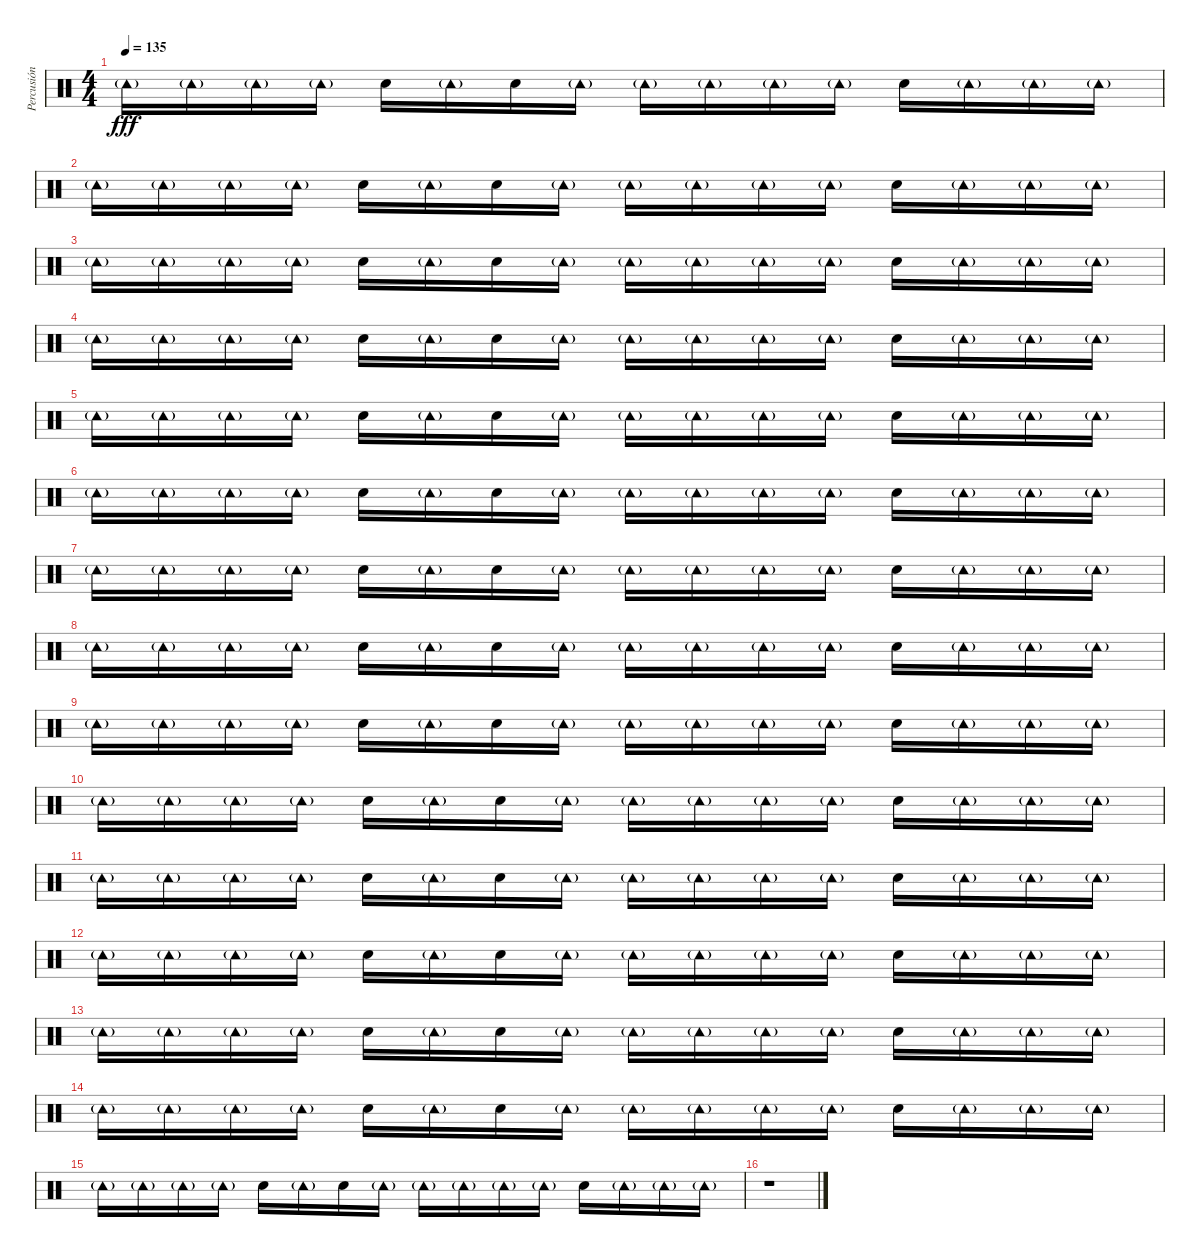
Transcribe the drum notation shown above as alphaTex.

\track ("Percusión" "Percusión") {instrument percussion}
\staff {score}
\articulation defaults
\ts (4 4)
\tempo 135
\clef neutral
\ks c "Tambourine (hit)"{g}.16{dy fff} "Tambourine (hit)"{g}.16 "Tambourine (hit)"{g}.16 "Tambourine (hit)"{g}.16 "Hand Clap (hit)".16 "Tambourine (hit)"{g}.16 "Hand Clap (hit)".16 "Tambourine (hit)"{g}.16 "Tambourine (hit)"{g}.16 "Tambourine (hit)"{g}.16 "Tambourine (hit)"{g}.16 "Tambourine (hit)"{g}.16 "Hand Clap (hit)".16 "Tambourine (hit)"{g}.16 "Tambourine (hit)"{g}.16 "Tambourine (hit)"{g}.16
|
"Tambourine (hit)"{g}.16 "Tambourine (hit)"{g}.16 "Tambourine (hit)"{g}.16 "Tambourine (hit)"{g}.16 "Hand Clap (hit)".16 "Tambourine (hit)"{g}.16 "Hand Clap (hit)".16 "Tambourine (hit)"{g}.16 "Tambourine (hit)"{g}.16 "Tambourine (hit)"{g}.16 "Tambourine (hit)"{g}.16 "Tambourine (hit)"{g}.16 "Hand Clap (hit)".16 "Tambourine (hit)"{g}.16 "Tambourine (hit)"{g}.16 "Tambourine (hit)"{g}.16 |
"Tambourine (hit)"{g}.16 "Tambourine (hit)"{g}.16 "Tambourine (hit)"{g}.16 "Tambourine (hit)"{g}.16 "Hand Clap (hit)".16 "Tambourine (hit)"{g}.16 "Hand Clap (hit)".16 "Tambourine (hit)"{g}.16 "Tambourine (hit)"{g}.16 "Tambourine (hit)"{g}.16 "Tambourine (hit)"{g}.16 "Tambourine (hit)"{g}.16 "Hand Clap (hit)".16 "Tambourine (hit)"{g}.16 "Tambourine (hit)"{g}.16 "Tambourine (hit)"{g}.16 |
"Tambourine (hit)"{g}.16 "Tambourine (hit)"{g}.16 "Tambourine (hit)"{g}.16 "Tambourine (hit)"{g}.16 "Hand Clap (hit)".16 "Tambourine (hit)"{g}.16 "Hand Clap (hit)".16 "Tambourine (hit)"{g}.16 "Tambourine (hit)"{g}.16 "Tambourine (hit)"{g}.16 "Tambourine (hit)"{g}.16 "Tambourine (hit)"{g}.16 "Hand Clap (hit)".16 "Tambourine (hit)"{g}.16 "Tambourine (hit)"{g}.16 "Tambourine (hit)"{g}.16 |
"Tambourine (hit)"{g}.16 "Tambourine (hit)"{g}.16 "Tambourine (hit)"{g}.16 "Tambourine (hit)"{g}.16 "Hand Clap (hit)".16 "Tambourine (hit)"{g}.16 "Hand Clap (hit)".16 "Tambourine (hit)"{g}.16 "Tambourine (hit)"{g}.16 "Tambourine (hit)"{g}.16 "Tambourine (hit)"{g}.16 "Tambourine (hit)"{g}.16 "Hand Clap (hit)".16 "Tambourine (hit)"{g}.16 "Tambourine (hit)"{g}.16 "Tambourine (hit)"{g}.16 |
"Tambourine (hit)"{g}.16 "Tambourine (hit)"{g}.16 "Tambourine (hit)"{g}.16 "Tambourine (hit)"{g}.16 "Hand Clap (hit)".16 "Tambourine (hit)"{g}.16 "Hand Clap (hit)".16 "Tambourine (hit)"{g}.16 "Tambourine (hit)"{g}.16 "Tambourine (hit)"{g}.16 "Tambourine (hit)"{g}.16 "Tambourine (hit)"{g}.16 "Hand Clap (hit)".16 "Tambourine (hit)"{g}.16 "Tambourine (hit)"{g}.16 "Tambourine (hit)"{g}.16 |
"Tambourine (hit)"{g}.16 "Tambourine (hit)"{g}.16 "Tambourine (hit)"{g}.16 "Tambourine (hit)"{g}.16 "Hand Clap (hit)".16 "Tambourine (hit)"{g}.16 "Hand Clap (hit)".16 "Tambourine (hit)"{g}.16 "Tambourine (hit)"{g}.16 "Tambourine (hit)"{g}.16 "Tambourine (hit)"{g}.16 "Tambourine (hit)"{g}.16 "Hand Clap (hit)".16 "Tambourine (hit)"{g}.16 "Tambourine (hit)"{g}.16 "Tambourine (hit)"{g}.16 |
"Tambourine (hit)"{g}.16 "Tambourine (hit)"{g}.16 "Tambourine (hit)"{g}.16 "Tambourine (hit)"{g}.16 "Hand Clap (hit)".16 "Tambourine (hit)"{g}.16 "Hand Clap (hit)".16 "Tambourine (hit)"{g}.16 "Tambourine (hit)"{g}.16 "Tambourine (hit)"{g}.16 "Tambourine (hit)"{g}.16 "Tambourine (hit)"{g}.16 "Hand Clap (hit)".16 "Tambourine (hit)"{g}.16 "Tambourine (hit)"{g}.16 "Tambourine (hit)"{g}.16 |
"Tambourine (hit)"{g}.16 "Tambourine (hit)"{g}.16 "Tambourine (hit)"{g}.16 "Tambourine (hit)"{g}.16 "Hand Clap (hit)".16 "Tambourine (hit)"{g}.16 "Hand Clap (hit)".16 "Tambourine (hit)"{g}.16 "Tambourine (hit)"{g}.16 "Tambourine (hit)"{g}.16 "Tambourine (hit)"{g}.16 "Tambourine (hit)"{g}.16 "Hand Clap (hit)".16 "Tambourine (hit)"{g}.16 "Tambourine (hit)"{g}.16 "Tambourine (hit)"{g}.16 |
"Tambourine (hit)"{g}.16 "Tambourine (hit)"{g}.16 "Tambourine (hit)"{g}.16 "Tambourine (hit)"{g}.16 "Hand Clap (hit)".16 "Tambourine (hit)"{g}.16 "Hand Clap (hit)".16 "Tambourine (hit)"{g}.16 "Tambourine (hit)"{g}.16 "Tambourine (hit)"{g}.16 "Tambourine (hit)"{g}.16 "Tambourine (hit)"{g}.16 "Hand Clap (hit)".16 "Tambourine (hit)"{g}.16 "Tambourine (hit)"{g}.16 "Tambourine (hit)"{g}.16 |
"Tambourine (hit)"{g}.16 "Tambourine (hit)"{g}.16 "Tambourine (hit)"{g}.16 "Tambourine (hit)"{g}.16 "Hand Clap (hit)".16 "Tambourine (hit)"{g}.16 "Hand Clap (hit)".16 "Tambourine (hit)"{g}.16 "Tambourine (hit)"{g}.16 "Tambourine (hit)"{g}.16 "Tambourine (hit)"{g}.16 "Tambourine (hit)"{g}.16 "Hand Clap (hit)".16 "Tambourine (hit)"{g}.16 "Tambourine (hit)"{g}.16 "Tambourine (hit)"{g}.16 |
"Tambourine (hit)"{g}.16 "Tambourine (hit)"{g}.16 "Tambourine (hit)"{g}.16 "Tambourine (hit)"{g}.16 "Hand Clap (hit)".16 "Tambourine (hit)"{g}.16 "Hand Clap (hit)".16 "Tambourine (hit)"{g}.16 "Tambourine (hit)"{g}.16 "Tambourine (hit)"{g}.16 "Tambourine (hit)"{g}.16 "Tambourine (hit)"{g}.16 "Hand Clap (hit)".16 "Tambourine (hit)"{g}.16 "Tambourine (hit)"{g}.16 "Tambourine (hit)"{g}.16 |
"Tambourine (hit)"{g}.16 "Tambourine (hit)"{g}.16 "Tambourine (hit)"{g}.16 "Tambourine (hit)"{g}.16 "Hand Clap (hit)".16 "Tambourine (hit)"{g}.16 "Hand Clap (hit)".16 "Tambourine (hit)"{g}.16 "Tambourine (hit)"{g}.16 "Tambourine (hit)"{g}.16 "Tambourine (hit)"{g}.16 "Tambourine (hit)"{g}.16 "Hand Clap (hit)".16 "Tambourine (hit)"{g}.16 "Tambourine (hit)"{g}.16 "Tambourine (hit)"{g}.16 |
"Tambourine (hit)"{g}.16 "Tambourine (hit)"{g}.16 "Tambourine (hit)"{g}.16 "Tambourine (hit)"{g}.16 "Hand Clap (hit)".16 "Tambourine (hit)"{g}.16 "Hand Clap (hit)".16 "Tambourine (hit)"{g}.16 "Tambourine (hit)"{g}.16 "Tambourine (hit)"{g}.16 "Tambourine (hit)"{g}.16 "Tambourine (hit)"{g}.16 "Hand Clap (hit)".16 "Tambourine (hit)"{g}.16 "Tambourine (hit)"{g}.16 "Tambourine (hit)"{g}.16 |
"Tambourine (hit)"{g}.16 "Tambourine (hit)"{g}.16 "Tambourine (hit)"{g}.16 "Tambourine (hit)"{g}.16 "Hand Clap (hit)".16 "Tambourine (hit)"{g}.16 "Hand Clap (hit)".16 "Tambourine (hit)"{g}.16 "Tambourine (hit)"{g}.16 "Tambourine (hit)"{g}.16 "Tambourine (hit)"{g}.16 "Tambourine (hit)"{g}.16 "Hand Clap (hit)".16 "Tambourine (hit)"{g}.16 "Tambourine (hit)"{g}.16 "Tambourine (hit)"{g}.16 |
r.1
